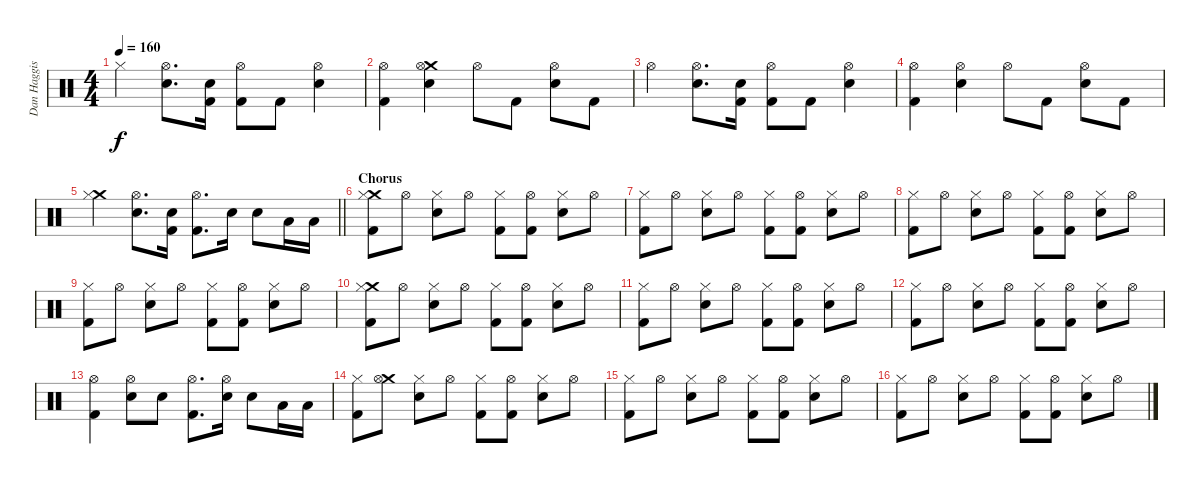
\track ("Dan Haggis" "Dan Haggis") {instrument percussion}
\staff {score}
\articulation defaults
\ts (4 4)
\tempo 160
\clef neutral
\ks c "Hi-Hat (closed)".4{dy f}
("Hi-Hat (open)" "Electric Snare (hit)").8{d} ("Kick (hit) 2" "Electric Snare (hit)").16 ("Hi-Hat (open)" "Kick (hit) 2").8 "Kick (hit) 2".8 ("Hi-Hat (open)" "Electric Snare (hit)").4 |
("Hi-Hat (open)" "Kick (hit) 2").4 ("Crash medium (hit)" "Hi-Hat (open)" "Electric Snare (hit)").4 "Hi-Hat (open)".8 "Kick (hit) 2".8 ("Hi-Hat (open)" "Electric Snare (hit)").8 "Kick (hit) 2".8 |
"Hi-Hat (open)".4 ("Hi-Hat (open)" "Electric Snare (hit)").8{d} ("Kick (hit) 2" "Electric Snare (hit)").16 ("Hi-Hat (open)" "Kick (hit) 2").8 "Kick (hit) 2".8 ("Hi-Hat (open)" "Electric Snare (hit)").4 |
("Hi-Hat (open)" "Kick (hit) 2").4 ("Hi-Hat (open)" "Electric Snare (hit)").4 "Hi-Hat (open)".8 "Kick (hit) 2".8 ("Hi-Hat (open)" "Electric Snare (hit)").8 "Kick (hit) 2".8 |
\barLineRight lightlight
("Crash medium (hit)" "Hi-Hat (closed)").4 ("Hi-Hat (open)" "Electric Snare (hit)").8{d} ("Kick (hit) 2" "Electric Snare (hit)").16 ("Hi-Hat (open)" "Kick (hit) 2").8{d} "Electric Snare (hit)".16 "Electric Snare (hit)".8 "Low Tom (hit)".16 "Low Tom (hit)".16 |
\section ("" "Chorus")
("Crash medium (hit)" "Hi-Hat (closed)" "Kick (hit) 2").8 "Hi-Hat (open)".8 ("Hi-Hat (closed)" "Electric Snare (hit)").8 "Hi-Hat (open)".8 ("Hi-Hat (closed)" "Kick (hit) 2").8 ("Hi-Hat (open)" "Kick (hit) 2").8 ("Electric Snare (hit)" "Hi-Hat (closed)").8 "Hi-Hat (open)".8 |
("Hi-Hat (closed)" "Kick (hit) 2").8 "Hi-Hat (open)".8 ("Hi-Hat (closed)" "Electric Snare (hit)").8 "Hi-Hat (open)".8 ("Hi-Hat (closed)" "Kick (hit) 2").8 ("Hi-Hat (open)" "Kick (hit) 2").8 ("Electric Snare (hit)" "Hi-Hat (closed)").8 "Hi-Hat (open)".8 |
("Hi-Hat (closed)" "Kick (hit) 2").8 "Hi-Hat (open)".8 ("Hi-Hat (closed)" "Electric Snare (hit)").8 "Hi-Hat (open)".8 ("Hi-Hat (closed)" "Kick (hit) 2").8 ("Hi-Hat (open)" "Kick (hit) 2").8 ("Electric Snare (hit)" "Hi-Hat (closed)").8 "Hi-Hat (open)".8 |
("Hi-Hat (closed)" "Kick (hit) 2").8 "Hi-Hat (open)".8 ("Hi-Hat (closed)" "Electric Snare (hit)").8 "Hi-Hat (open)".8 ("Hi-Hat (closed)" "Kick (hit) 2").8 ("Hi-Hat (open)" "Kick (hit) 2").8 ("Electric Snare (hit)" "Hi-Hat (closed)").8 "Hi-Hat (open)".8 |
("Crash medium (hit)" "Hi-Hat (closed)" "Kick (hit) 2").8 "Hi-Hat (open)".8 ("Hi-Hat (closed)" "Electric Snare (hit)").8 "Hi-Hat (open)".8 ("Hi-Hat (closed)" "Kick (hit) 2").8 ("Hi-Hat (open)" "Kick (hit) 2").8 ("Electric Snare (hit)" "Hi-Hat (closed)").8 "Hi-Hat (open)".8 |
("Hi-Hat (closed)" "Kick (hit) 2").8 "Hi-Hat (open)".8 ("Hi-Hat (closed)" "Electric Snare (hit)").8 "Hi-Hat (open)".8 ("Hi-Hat (closed)" "Kick (hit) 2").8 ("Hi-Hat (open)" "Kick (hit) 2").8 ("Electric Snare (hit)" "Hi-Hat (closed)").8 "Hi-Hat (open)".8 |
("Hi-Hat (closed)" "Kick (hit) 2").8 "Hi-Hat (open)".8 ("Hi-Hat (closed)" "Electric Snare (hit)").8 "Hi-Hat (open)".8 ("Hi-Hat (closed)" "Kick (hit) 2").8 ("Hi-Hat (open)" "Kick (hit) 2").8 ("Electric Snare (hit)" "Hi-Hat (closed)").8 "Hi-Hat (open)".8 |
("Hi-Hat (open)" "Kick (hit) 2").4 ("Hi-Hat (open)" "Electric Snare (hit)").8 "Electric Snare (hit)".8 ("Hi-Hat (open)" "Kick (hit) 2").8{d} ("Hi-Hat (open)" "Electric Snare (hit)").16 "Electric Snare (hit)".8 "Low Tom (hit)".16 "Low Tom (hit)".16 |
("Hi-Hat (closed)" "Kick (hit) 2").8 ("Crash medium (hit)" "Hi-Hat (open)").8 ("Hi-Hat (closed)" "Electric Snare (hit)").8 "Hi-Hat (open)".8 ("Hi-Hat (closed)" "Kick (hit) 2").8 ("Hi-Hat (open)" "Kick (hit) 2").8 ("Electric Snare (hit)" "Hi-Hat (closed)").8 "Hi-Hat (open)".8 |
("Hi-Hat (closed)" "Kick (hit) 2").8 "Hi-Hat (open)".8 ("Hi-Hat (closed)" "Electric Snare (hit)").8 "Hi-Hat (open)".8 ("Hi-Hat (closed)" "Kick (hit) 2").8 ("Hi-Hat (open)" "Kick (hit) 2").8 ("Electric Snare (hit)" "Hi-Hat (closed)").8 "Hi-Hat (open)".8 |
("Hi-Hat (closed)" "Kick (hit) 2").8 "Hi-Hat (open)".8 ("Hi-Hat (closed)" "Electric Snare (hit)").8 "Hi-Hat (open)".8 ("Hi-Hat (closed)" "Kick (hit) 2").8 ("Hi-Hat (open)" "Kick (hit) 2").8 ("Electric Snare (hit)" "Hi-Hat (closed)").8 "Hi-Hat (open)".8
